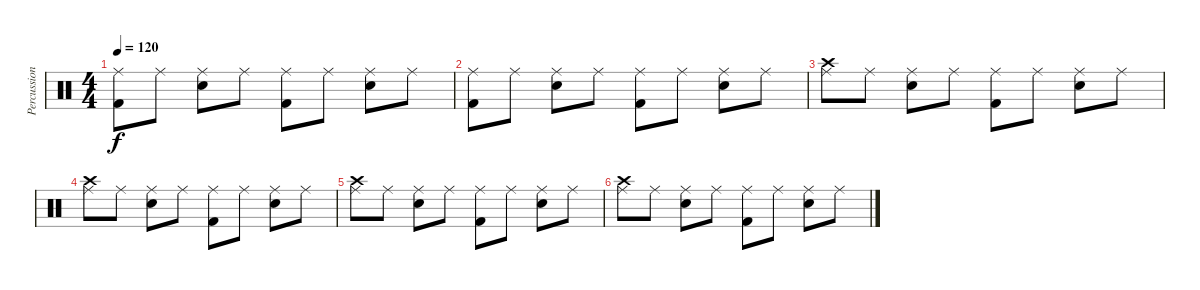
\track ("Percussions" "Percussion") {instrument percussion}
\staff {score}
\articulation defaults
\ts (4 4)
\tempo 120
\clef neutral
\ks c
("Ride (middle)" "Kick (hit) 2").8{dy f} "Ride (middle)".8 ("Ride (middle)" "Electric Snare (hit)").8 "Ride (middle)".8 ("Ride (middle)" "Kick (hit) 2").8 "Ride (middle)".8 ("Ride (middle)" "Electric Snare (hit)").8 "Ride (middle)".8 |
("Ride (middle)" "Kick (hit) 2").8 "Ride (middle)".8 ("Ride (middle)" "Electric Snare (hit)").8 "Ride (middle)".8 ("Ride (middle)" "Kick (hit) 2").8 "Ride (middle)".8 ("Ride (middle)" "Electric Snare (hit)").8 "Ride (middle)".8 |
("Ride (middle)" "Crash high (hit)").8 "Ride (middle)".8 ("Ride (middle)" "Electric Snare (hit)").8 "Ride (middle)".8 ("Ride (middle)" "Kick (hit) 2").8 "Ride (middle)".8 ("Ride (middle)" "Electric Snare (hit)").8 "Ride (middle)".8 |
("Ride (middle)" "Crash high (hit)").8 "Ride (middle)".8 ("Ride (middle)" "Electric Snare (hit)").8 "Ride (middle)".8 ("Ride (middle)" "Kick (hit) 2").8 "Ride (middle)".8 ("Ride (middle)" "Electric Snare (hit)").8 "Ride (middle)".8 |
("Ride (middle)" "Crash high (hit)").8 "Ride (middle)".8 ("Ride (middle)" "Electric Snare (hit)").8 "Ride (middle)".8 ("Ride (middle)" "Kick (hit) 2").8 "Ride (middle)".8 ("Ride (middle)" "Electric Snare (hit)").8 "Ride (middle)".8 |
("Ride (middle)" "Crash high (hit)").8 "Ride (middle)".8 ("Ride (middle)" "Electric Snare (hit)").8 "Ride (middle)".8 ("Ride (middle)" "Kick (hit) 2").8 "Ride (middle)".8 ("Ride (middle)" "Electric Snare (hit)").8 "Ride (middle)".8
